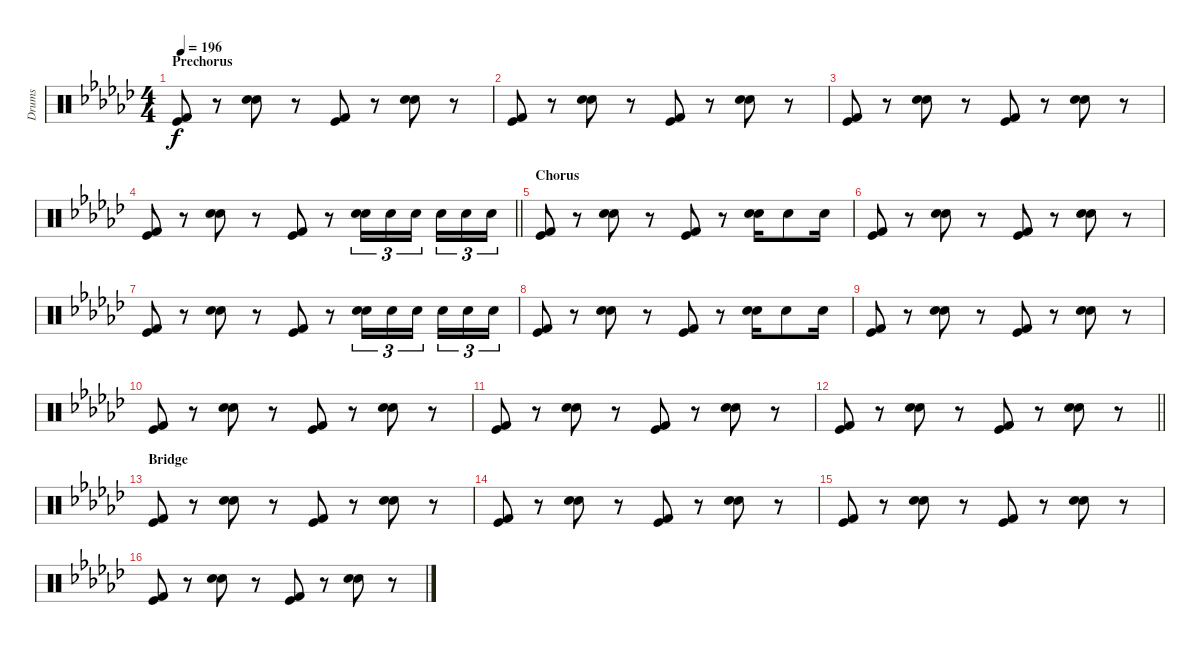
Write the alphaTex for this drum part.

\track ("Drums" "Drums") {instrument percussion}
\staff {score}
\articulation defaults
\ts (4 4)
\section ("" "Prechorus")
\tempo 196
\clef neutral
\ks gb
("Kick (hit) 2" "Kick (hit)").8{dy f} r.8 ("Snare (hit) 2" "Electric Snare (hit)").8 r.8 ("Kick (hit) 2" "Kick (hit)").8 r.8 ("Snare (hit) 2" "Electric Snare (hit)").8 r.8 |
("Kick (hit) 2" "Kick (hit)").8 r.8 ("Snare (hit) 2" "Electric Snare (hit)").8 r.8 ("Kick (hit) 2" "Kick (hit)").8 r.8 ("Snare (hit) 2" "Electric Snare (hit)").8 r.8 |
("Kick (hit) 2" "Kick (hit)").8 r.8 ("Snare (hit) 2" "Electric Snare (hit)").8 r.8 ("Kick (hit) 2" "Kick (hit)").8 r.8 ("Snare (hit) 2" "Electric Snare (hit)").8 r.8 |
\barLineRight lightlight
("Kick (hit) 2" "Kick (hit)").8 r.8 ("Snare (hit) 2" "Electric Snare (hit)").8 r.8 ("Kick (hit) 2" "Kick (hit)").8 r.8 ("Hand Clap (hit)" "Electric Snare (hit)").16{tu (3 2)} "Hand Clap (hit)".16{tu (3 2)} "Hand Clap (hit)".16{tu (3 2) beam splitsecondary} "Hand Clap (hit)".16{tu (3 2)} "Hand Clap (hit)".16{tu (3 2)} "Hand Clap (hit)".16{tu (3 2)} |
\section ("" "Chorus")
("Kick (hit) 2" "Kick (hit)").8 r.8 ("Snare (hit) 2" "Electric Snare (hit)").8 r.8 ("Kick (hit) 2" "Kick (hit)").8 r.8 ("Snare (hit) 2" "Electric Snare (hit)").16 "Hand Clap (hit)".8 "Hand Clap (hit)".16 |
("Kick (hit) 2" "Kick (hit)").8 r.8 ("Snare (hit) 2" "Electric Snare (hit)").8 r.8 ("Kick (hit) 2" "Kick (hit)").8 r.8 ("Snare (hit) 2" "Electric Snare (hit)").8 r.8 |
("Kick (hit) 2" "Kick (hit)").8 r.8 ("Snare (hit) 2" "Electric Snare (hit)").8 r.8 ("Kick (hit) 2" "Kick (hit)").8 r.8 ("Hand Clap (hit)" "Electric Snare (hit)").16{tu (3 2)} "Hand Clap (hit)".16{tu (3 2)} "Hand Clap (hit)".16{tu (3 2) beam splitsecondary} "Hand Clap (hit)".16{tu (3 2)} "Hand Clap (hit)".16{tu (3 2)} "Hand Clap (hit)".16{tu (3 2)} |
("Kick (hit) 2" "Kick (hit)").8 r.8 ("Snare (hit) 2" "Electric Snare (hit)").8 r.8 ("Kick (hit) 2" "Kick (hit)").8 r.8 ("Snare (hit) 2" "Electric Snare (hit)").16 "Hand Clap (hit)".8 "Hand Clap (hit)".16 |
("Kick (hit) 2" "Kick (hit)").8 r.8 ("Snare (hit) 2" "Electric Snare (hit)").8 r.8 ("Kick (hit) 2" "Kick (hit)").8 r.8 ("Snare (hit) 2" "Electric Snare (hit)").8 r.8 |
("Kick (hit) 2" "Kick (hit)").8 r.8 ("Snare (hit) 2" "Electric Snare (hit)").8 r.8 ("Kick (hit) 2" "Kick (hit)").8 r.8 ("Snare (hit) 2" "Electric Snare (hit)").8 r.8 |
("Kick (hit) 2" "Kick (hit)").8 r.8 ("Snare (hit) 2" "Electric Snare (hit)").8 r.8 ("Kick (hit) 2" "Kick (hit)").8 r.8 ("Snare (hit) 2" "Electric Snare (hit)").8 r.8 |
\barLineRight lightlight
("Kick (hit) 2" "Kick (hit)").8 r.8 ("Snare (hit) 2" "Electric Snare (hit)").8 r.8 ("Kick (hit) 2" "Kick (hit)").8 r.8 ("Snare (hit) 2" "Electric Snare (hit)").8 r.8 |
\section ("" "Bridge")
("Kick (hit) 2" "Kick (hit)").8 r.8 ("Snare (hit) 2" "Electric Snare (hit)").8 r.8 ("Kick (hit) 2" "Kick (hit)").8 r.8 ("Snare (hit) 2" "Electric Snare (hit)").8 r.8 |
("Kick (hit) 2" "Kick (hit)").8 r.8 ("Snare (hit) 2" "Electric Snare (hit)").8 r.8 ("Kick (hit) 2" "Kick (hit)").8 r.8 ("Snare (hit) 2" "Electric Snare (hit)").8 r.8 |
("Kick (hit) 2" "Kick (hit)").8 r.8 ("Snare (hit) 2" "Electric Snare (hit)").8 r.8 ("Kick (hit) 2" "Kick (hit)").8 r.8 ("Snare (hit) 2" "Electric Snare (hit)").8 r.8 |
("Kick (hit) 2" "Kick (hit)").8 r.8 ("Snare (hit) 2" "Electric Snare (hit)").8 r.8 ("Kick (hit) 2" "Kick (hit)").8 r.8 ("Snare (hit) 2" "Electric Snare (hit)").8 r.8
